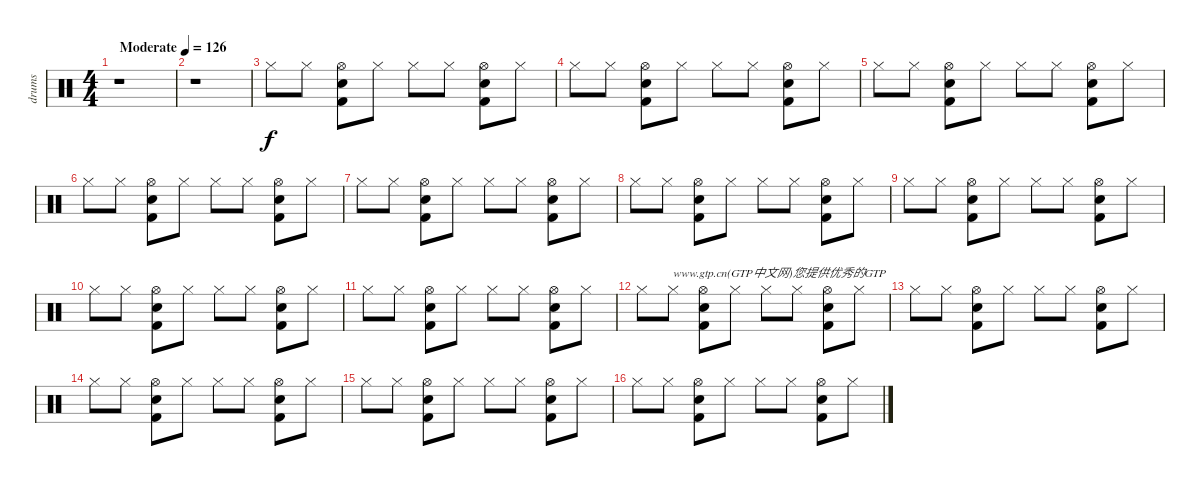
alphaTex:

\track ("drums" "drums") {instrument percussion}
\staff {score}
\articulation defaults
\ts (4 4)
\tempo (126 "Moderate")
\clef neutral
\ks c
r.1{dy f} |
r.1 |
"Hi-Hat (closed)".8 "Hi-Hat (closed)".8 ("Snare (hit) 2" "Hi-Hat (open)" "Kick (hit) 2").8 "Hi-Hat (closed)".8 "Hi-Hat (closed)".8 "Hi-Hat (closed)".8 ("Snare (hit) 2" "Hi-Hat (open)" "Kick (hit) 2").8 "Hi-Hat (closed)".8 |
"Hi-Hat (closed)".8 "Hi-Hat (closed)".8 ("Snare (hit) 2" "Hi-Hat (open)" "Kick (hit) 2").8 "Hi-Hat (closed)".8 "Hi-Hat (closed)".8 "Hi-Hat (closed)".8 ("Snare (hit) 2" "Hi-Hat (open)" "Kick (hit) 2").8 "Hi-Hat (closed)".8 |
"Hi-Hat (closed)".8 "Hi-Hat (closed)".8 ("Snare (hit) 2" "Hi-Hat (open)" "Kick (hit) 2").8 "Hi-Hat (closed)".8 "Hi-Hat (closed)".8 "Hi-Hat (closed)".8 ("Snare (hit) 2" "Hi-Hat (open)" "Kick (hit) 2").8 "Hi-Hat (closed)".8 |
"Hi-Hat (closed)".8 "Hi-Hat (closed)".8 ("Snare (hit) 2" "Hi-Hat (open)" "Kick (hit) 2").8 "Hi-Hat (closed)".8 "Hi-Hat (closed)".8 "Hi-Hat (closed)".8 ("Snare (hit) 2" "Hi-Hat (open)" "Kick (hit) 2").8 "Hi-Hat (closed)".8 |
"Hi-Hat (closed)".8 "Hi-Hat (closed)".8 ("Snare (hit) 2" "Hi-Hat (open)" "Kick (hit) 2").8 "Hi-Hat (closed)".8 "Hi-Hat (closed)".8 "Hi-Hat (closed)".8 ("Snare (hit) 2" "Hi-Hat (open)" "Kick (hit) 2").8 "Hi-Hat (closed)".8 |
"Hi-Hat (closed)".8 "Hi-Hat (closed)".8 ("Snare (hit) 2" "Hi-Hat (open)" "Kick (hit) 2").8 "Hi-Hat (closed)".8 "Hi-Hat (closed)".8 "Hi-Hat (closed)".8 ("Snare (hit) 2" "Hi-Hat (open)" "Kick (hit) 2").8 "Hi-Hat (closed)".8 |
"Hi-Hat (closed)".8 "Hi-Hat (closed)".8 ("Snare (hit) 2" "Hi-Hat (open)" "Kick (hit) 2").8 "Hi-Hat (closed)".8 "Hi-Hat (closed)".8 "Hi-Hat (closed)".8 ("Snare (hit) 2" "Hi-Hat (open)" "Kick (hit) 2").8 "Hi-Hat (closed)".8 |
"Hi-Hat (closed)".8 "Hi-Hat (closed)".8 ("Snare (hit) 2" "Hi-Hat (open)" "Kick (hit) 2").8 "Hi-Hat (closed)".8 "Hi-Hat (closed)".8 "Hi-Hat (closed)".8 ("Snare (hit) 2" "Hi-Hat (open)" "Kick (hit) 2").8 "Hi-Hat (closed)".8 |
"Hi-Hat (closed)".8 "Hi-Hat (closed)".8 ("Snare (hit) 2" "Hi-Hat (open)" "Kick (hit) 2").8 "Hi-Hat (closed)".8 "Hi-Hat (closed)".8 "Hi-Hat (closed)".8 ("Snare (hit) 2" "Hi-Hat (open)" "Kick (hit) 2").8 "Hi-Hat (closed)".8 |
"Hi-Hat (closed)".8 "Hi-Hat (closed)".8{txt "www.gtp.cn(GTP中文网)您提供优秀的GTP"} ("Snare (hit) 2" "Hi-Hat (open)" "Kick (hit) 2").8 "Hi-Hat (closed)".8 "Hi-Hat (closed)".8 "Hi-Hat (closed)".8 ("Snare (hit) 2" "Hi-Hat (open)" "Kick (hit) 2").8 "Hi-Hat (closed)".8 |
"Hi-Hat (closed)".8 "Hi-Hat (closed)".8 ("Snare (hit) 2" "Hi-Hat (open)" "Kick (hit) 2").8 "Hi-Hat (closed)".8 "Hi-Hat (closed)".8 "Hi-Hat (closed)".8 ("Snare (hit) 2" "Hi-Hat (open)" "Kick (hit) 2").8 "Hi-Hat (closed)".8 |
"Hi-Hat (closed)".8 "Hi-Hat (closed)".8 ("Snare (hit) 2" "Hi-Hat (open)" "Kick (hit) 2").8 "Hi-Hat (closed)".8 "Hi-Hat (closed)".8 "Hi-Hat (closed)".8 ("Snare (hit) 2" "Hi-Hat (open)" "Kick (hit) 2").8 "Hi-Hat (closed)".8 |
"Hi-Hat (closed)".8 "Hi-Hat (closed)".8 ("Snare (hit) 2" "Hi-Hat (open)" "Kick (hit) 2").8 "Hi-Hat (closed)".8 "Hi-Hat (closed)".8 "Hi-Hat (closed)".8 ("Snare (hit) 2" "Hi-Hat (open)" "Kick (hit) 2").8 "Hi-Hat (closed)".8 |
"Hi-Hat (closed)".8 "Hi-Hat (closed)".8 ("Snare (hit) 2" "Hi-Hat (open)" "Kick (hit) 2").8 "Hi-Hat (closed)".8 "Hi-Hat (closed)".8 "Hi-Hat (closed)".8 ("Snare (hit) 2" "Hi-Hat (open)" "Kick (hit) 2").8 "Hi-Hat (closed)".8
